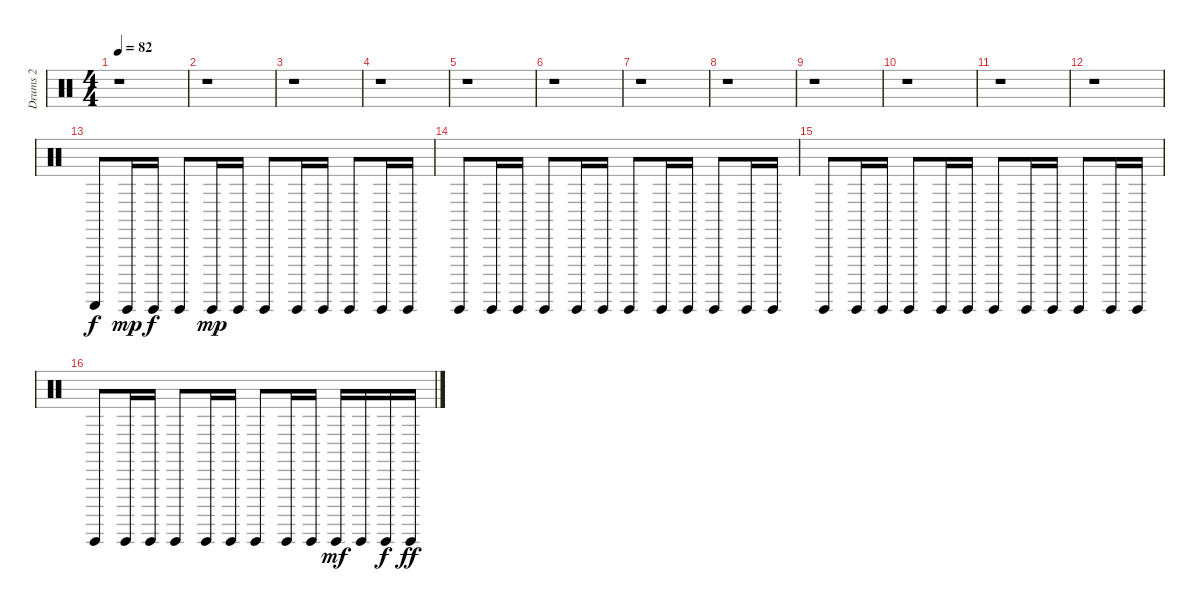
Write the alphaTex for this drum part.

\track ("Drums 2" "Drums 2") {instrument percussion}
\staff {score}
\articulation defaults
\ts (4 4)
\tempo 82
\clef neutral
\ks c
r.1{dy f} |
r.1 |
r.1 |
r.1 |
r.1 |
r.1 |
r.1 |
r.1 |
r.1 |
r.1 |
r.1 |
r.1 |
"Guiro (scrap-return)".8 "Guiro (hit)".16{dy mp} "Guiro (hit)".16{dy f} "Guiro (hit)".8 "Guiro (hit)".16{dy mp} "Guiro (hit)".16 "Guiro (hit)".8 "Guiro (hit)".16 "Guiro (hit)".16 "Guiro (hit)".8 "Guiro (hit)".16 "Guiro (hit)".16 |
"Guiro (hit)".8 "Guiro (hit)".16 "Guiro (hit)".16 "Guiro (hit)".8 "Guiro (hit)".16 "Guiro (hit)".16 "Guiro (hit)".8 "Guiro (hit)".16 "Guiro (hit)".16 "Guiro (hit)".8 "Guiro (hit)".16 "Guiro (hit)".16 |
"Guiro (hit)".8 "Guiro (hit)".16 "Guiro (hit)".16 "Guiro (hit)".8 "Guiro (hit)".16 "Guiro (hit)".16 "Guiro (hit)".8 "Guiro (hit)".16 "Guiro (hit)".16 "Guiro (hit)".8 "Guiro (hit)".16 "Guiro (hit)".16 |
"Guiro (hit)".8 "Guiro (hit)".16 "Guiro (hit)".16 "Guiro (hit)".8 "Guiro (hit)".16 "Guiro (hit)".16 "Guiro (hit)".8 "Guiro (hit)".16 "Guiro (hit)".16 "Guiro (hit)".16{dy mf} "Guiro (hit)".16 "Guiro (hit)".16{dy f} "Guiro (hit)".16{dy ff}
